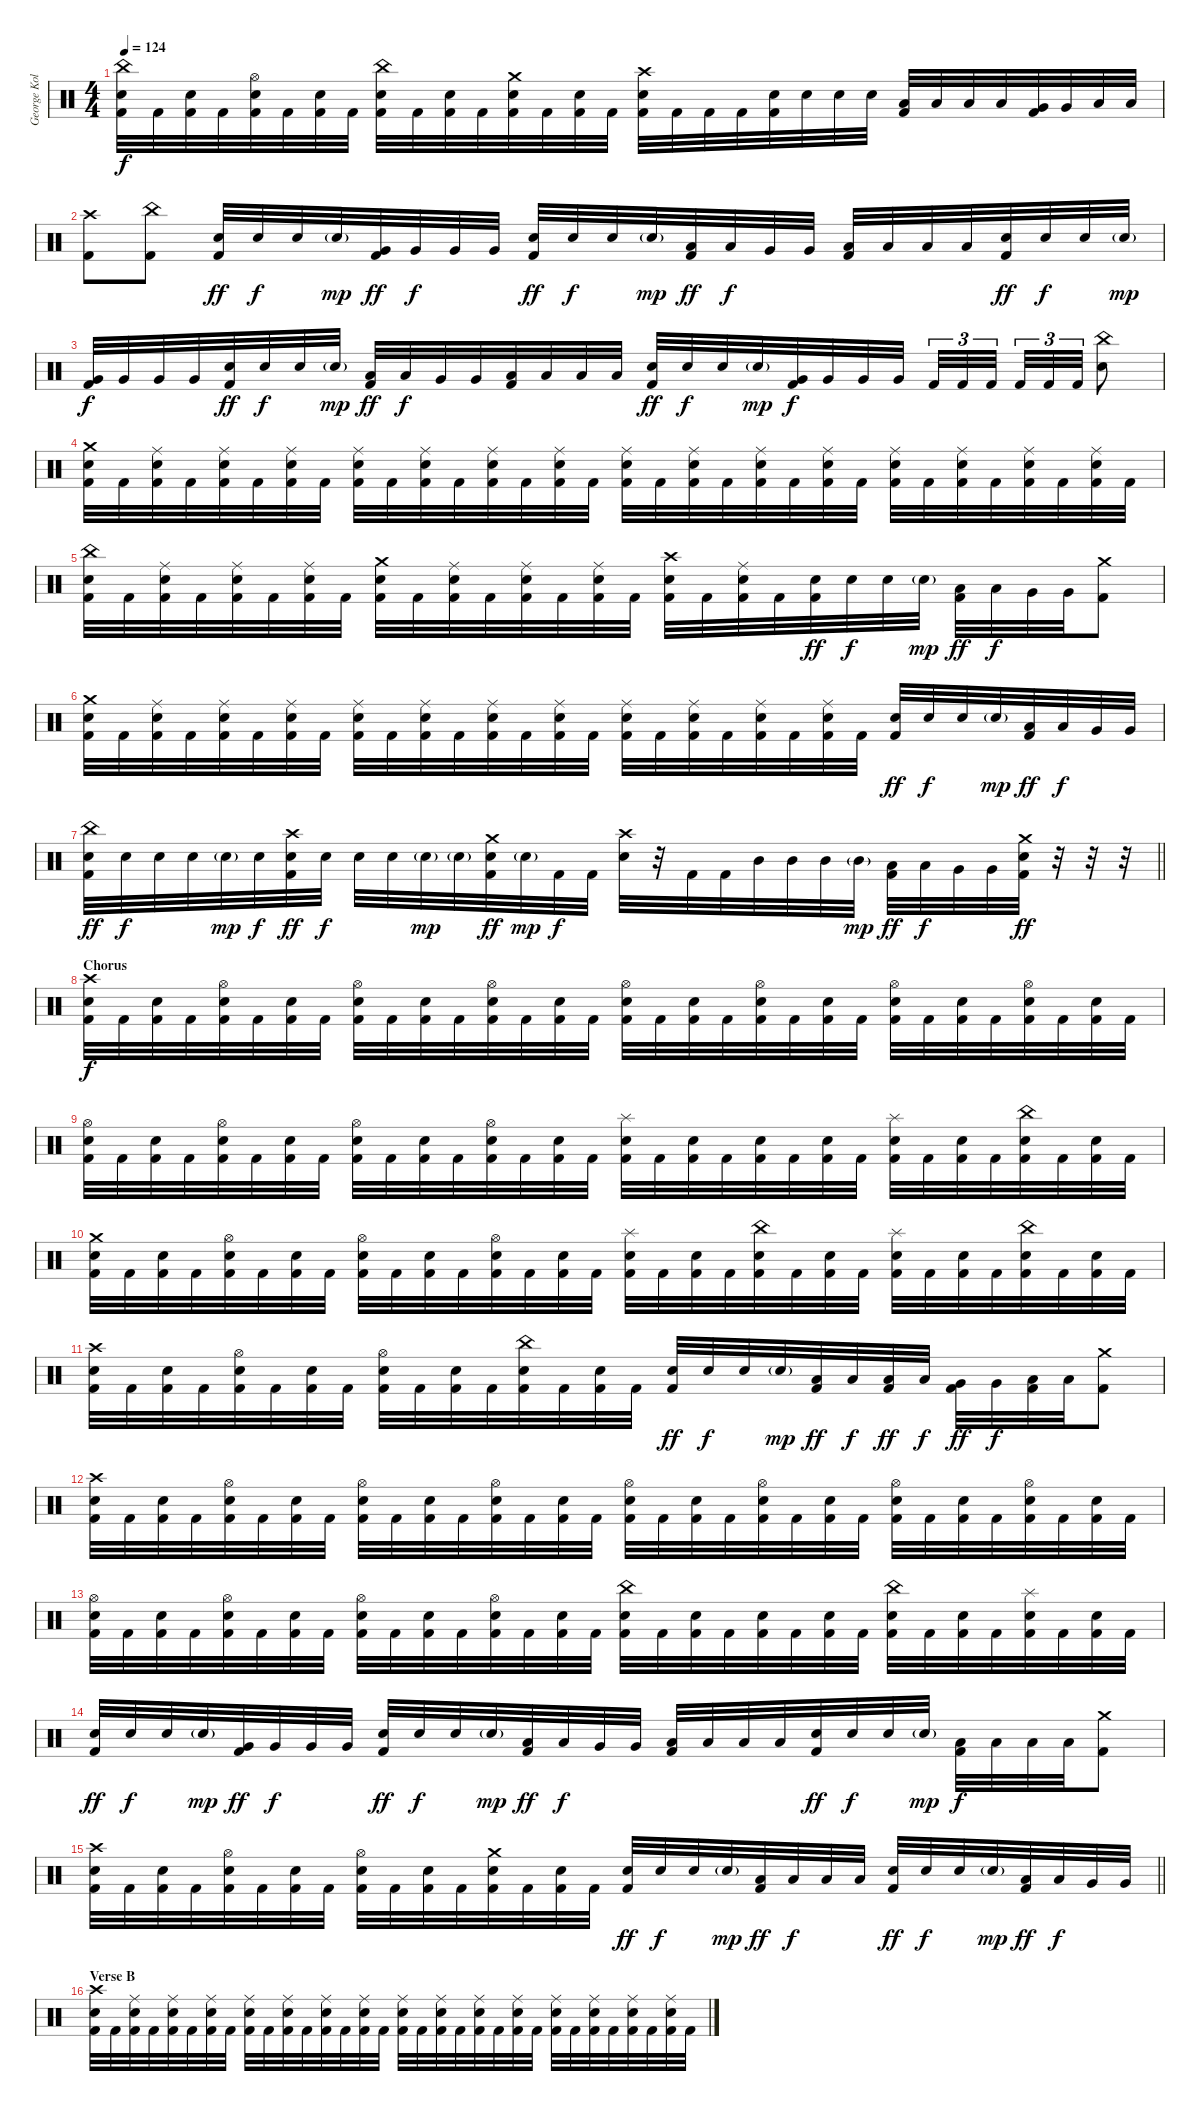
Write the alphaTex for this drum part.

\track ("George Kollias" "George Kol") {instrument percussion}
\staff {score}
\articulation defaults
\ts (4 4)
\tempo 124
\clef neutral
\ks c
("China (hit)" "Electric Snare (hit)" "Kick (hit) 2").32{dy f} "Kick (hit) 2".32 ("Electric Snare (hit)" "Kick (hit) 2").32 "Kick (hit) 2".32 ("Hi-Hat (open)" "Electric Snare (hit)" "Kick (hit) 2").32 "Kick (hit) 2".32 ("Electric Snare (hit)" "Kick (hit) 2").32 "Kick (hit) 2".32 ("China (hit)" "Electric Snare (hit)" "Kick (hit) 2").32 "Kick (hit) 2".32 ("Electric Snare (hit)" "Kick (hit) 2").32 "Kick (hit) 2".32 ("Crash medium (hit)" "Electric Snare (hit)" "Kick (hit) 2").32 "Kick (hit) 2".32 ("Electric Snare (hit)" "Kick (hit) 2").32 "Kick (hit) 2".32 ("Crash high (hit)" "Electric Snare (hit)" "Kick (hit) 2").32 "Kick (hit) 2".32 "Kick (hit) 2".32 "Kick (hit) 2".32 ("Electric Snare (hit)" "Kick (hit) 2").32 "Electric Snare (hit)".32 "Electric Snare (hit)".32 "Electric Snare (hit)".32 ("Low Tom (hit)" "Kick (hit) 2").32 "Low Tom (hit)".32 "Low Tom (hit)".32 "Low Tom (hit)".32 ("Very Low Tom (hit)" "Kick (hit) 2").32 "Very Low Tom (hit)".32 "Low Floor Tom (hit)".32 "Low Floor Tom (hit)".32 |
("Crash high (hit)" "Kick (hit) 2").8 ("China (hit)" "Kick (hit) 2").8 ("Electric Snare (hit)" "Kick (hit) 2").32{dy ff} "Electric Snare (hit)".32{dy f} "Electric Snare (hit)".32 "Electric Snare (hit)"{g}.32{dy mp} ("Very Low Tom (hit)" "Kick (hit) 2").32{dy ff} "Very Low Tom (hit)".32{dy f} "Very Low Tom (hit)".32 "Very Low Tom (hit)".32 ("Electric Snare (hit)" "Kick (hit) 2").32{dy ff} "Electric Snare (hit)".32{dy f} "Electric Snare (hit)".32 "Electric Snare (hit)"{g}.32{dy mp} ("Low Tom (hit)" "Kick (hit) 2").32{dy ff} "Low Tom (hit)".32{dy f} "Very Low Tom (hit)".32 "Very Low Tom (hit)".32 ("Low Floor Tom (hit)" "Kick (hit) 2").32 "Low Floor Tom (hit)".32 "Low Floor Tom (hit)".32 "Low Floor Tom (hit)".32 ("Electric Snare (hit)" "Kick (hit) 2").32{dy ff} "Electric Snare (hit)".32{dy f} "Electric Snare (hit)".32 "Electric Snare (hit)"{g}.32{dy mp} |
("Very Low Tom (hit)" "Kick (hit) 2").32{dy f} "Very Low Tom (hit)".32 "Very Low Tom (hit)".32 "Very Low Tom (hit)".32 ("Electric Snare (hit)" "Kick (hit) 2").32{dy ff} "Electric Snare (hit)".32{dy f} "Electric Snare (hit)".32 "Electric Snare (hit)"{g}.32{dy mp} ("Low Tom (hit)" "Kick (hit) 2").32{dy ff} "Low Tom (hit)".32{dy f} "Very Low Tom (hit)".32 "Very Low Tom (hit)".32 ("Low Floor Tom (hit)" "Kick (hit) 2").32 "Low Floor Tom (hit)".32 "Low Floor Tom (hit)".32 "Low Floor Tom (hit)".32 ("Electric Snare (hit)" "Kick (hit) 2").32{dy ff} "Electric Snare (hit)".32{dy f} "Electric Snare (hit)".32 "Electric Snare (hit)"{g}.32{dy mp} ("Very Low Tom (hit)" "Kick (hit) 2").32{dy f} "Very Low Tom (hit)".32 "Very Low Tom (hit)".32 "Very Low Tom (hit)".32 "Kick (hit) 2".32{tu (3 2)} "Kick (hit) 2".32{tu (3 2)} "Kick (hit) 2".32{tu (3 2) beam splitsecondary} "Kick (hit) 2".32{tu (3 2)} "Kick (hit) 2".32{tu (3 2)} "Kick (hit) 2".32{tu (3 2)} ("China (hit)" "Electric Snare (hit)").8 |
("Crash medium (hit)" "Electric Snare (hit)" "Kick (hit) 2").32 "Kick (hit) 2".32 ("Ride (middle)" "Electric Snare (hit)" "Kick (hit) 2").32 "Kick (hit) 2".32 ("Ride (middle)" "Electric Snare (hit)" "Kick (hit) 2").32 "Kick (hit) 2".32 ("Ride (middle)" "Electric Snare (hit)" "Kick (hit) 2").32 "Kick (hit) 2".32 ("Ride (middle)" "Electric Snare (hit)" "Kick (hit) 2").32 "Kick (hit) 2".32 ("Ride (middle)" "Electric Snare (hit)" "Kick (hit) 2").32 "Kick (hit) 2".32 ("Ride (middle)" "Electric Snare (hit)" "Kick (hit) 2").32 "Kick (hit) 2".32 ("Ride (middle)" "Electric Snare (hit)" "Kick (hit) 2").32 "Kick (hit) 2".32 ("Ride (middle)" "Electric Snare (hit)" "Kick (hit) 2").32 "Kick (hit) 2".32 ("Ride (middle)" "Electric Snare (hit)" "Kick (hit) 2").32 "Kick (hit) 2".32 ("Ride (middle)" "Electric Snare (hit)" "Kick (hit) 2").32 "Kick (hit) 2".32 ("Ride (middle)" "Electric Snare (hit)" "Kick (hit) 2").32 "Kick (hit) 2".32 ("Ride (middle)" "Electric Snare (hit)" "Kick (hit) 2").32 "Kick (hit) 2".32 ("Ride (middle)" "Electric Snare (hit)" "Kick (hit) 2").32 "Kick (hit) 2".32 ("Ride (middle)" "Electric Snare (hit)" "Kick (hit) 2").32 "Kick (hit) 2".32 ("Ride (middle)" "Electric Snare (hit)" "Kick (hit) 2").32 "Kick (hit) 2".32 |
("China (hit)" "Electric Snare (hit)" "Kick (hit) 2").32 "Kick (hit) 2".32 ("Ride (middle)" "Electric Snare (hit)" "Kick (hit) 2").32 "Kick (hit) 2".32 ("Ride (middle)" "Electric Snare (hit)" "Kick (hit) 2").32 "Kick (hit) 2".32 ("Ride (middle)" "Electric Snare (hit)" "Kick (hit) 2").32 "Kick (hit) 2".32 ("Crash medium (hit)" "Electric Snare (hit)" "Kick (hit) 2").32 "Kick (hit) 2".32 ("Ride (middle)" "Electric Snare (hit)" "Kick (hit) 2").32 "Kick (hit) 2".32 ("Ride (middle)" "Electric Snare (hit)" "Kick (hit) 2").32 "Kick (hit) 2".32 ("Ride (middle)" "Electric Snare (hit)" "Kick (hit) 2").32 "Kick (hit) 2".32 ("Crash high (hit)" "Electric Snare (hit)" "Kick (hit) 2").32 "Kick (hit) 2".32 ("Ride (middle)" "Electric Snare (hit)" "Kick (hit) 2").32 "Kick (hit) 2".32 ("Electric Snare (hit)" "Kick (hit) 2").32{dy ff} "Electric Snare (hit)".32{dy f} "Electric Snare (hit)".32 "Electric Snare (hit)"{g}.32{dy mp} ("Low Tom (hit)" "Kick (hit) 2").32{dy ff} "Low Tom (hit)".32{dy f} "Very Low Tom (hit)".32 "Very Low Tom (hit)".32 ("Crash medium (hit)" "Kick (hit) 2").8 |
("Crash medium (hit)" "Electric Snare (hit)" "Kick (hit) 2").32 "Kick (hit) 2".32 ("Ride (middle)" "Electric Snare (hit)" "Kick (hit) 2").32 "Kick (hit) 2".32 ("Ride (middle)" "Electric Snare (hit)" "Kick (hit) 2").32 "Kick (hit) 2".32 ("Ride (middle)" "Electric Snare (hit)" "Kick (hit) 2").32 "Kick (hit) 2".32 ("Ride (middle)" "Electric Snare (hit)" "Kick (hit) 2").32 "Kick (hit) 2".32 ("Ride (middle)" "Electric Snare (hit)" "Kick (hit) 2").32 "Kick (hit) 2".32 ("Ride (middle)" "Electric Snare (hit)" "Kick (hit) 2").32 "Kick (hit) 2".32 ("Ride (middle)" "Electric Snare (hit)" "Kick (hit) 2").32 "Kick (hit) 2".32 ("Ride (middle)" "Electric Snare (hit)" "Kick (hit) 2").32 "Kick (hit) 2".32 ("Ride (middle)" "Electric Snare (hit)" "Kick (hit) 2").32 "Kick (hit) 2".32 ("Ride (middle)" "Electric Snare (hit)" "Kick (hit) 2").32 "Kick (hit) 2".32 ("Ride (middle)" "Electric Snare (hit)" "Kick (hit) 2").32 "Kick (hit) 2".32 ("Electric Snare (hit)" "Kick (hit) 2").32{dy ff} "Electric Snare (hit)".32{dy f} "Electric Snare (hit)".32 "Electric Snare (hit)"{g}.32{dy mp} ("Low Tom (hit)" "Kick (hit) 2").32{dy ff} "Low Tom (hit)".32{dy f} "Very Low Tom (hit)".32 "Very Low Tom (hit)".32 |
\barLineRight lightlight
("China (hit)" "Electric Snare (hit)" "Kick (hit) 2").32{dy ff} "Electric Snare (hit)".32{dy f} "Electric Snare (hit)".32 "Electric Snare (hit)".32 "Electric Snare (hit)"{g}.32{dy mp} "Electric Snare (hit)".32{dy f} ("Crash high (hit)" "Electric Snare (hit)" "Kick (hit) 2").32{dy ff} "Electric Snare (hit)".32{dy f} "Electric Snare (hit)".32 "Electric Snare (hit)".32 "Electric Snare (hit)"{g}.32{dy mp} "Electric Snare (hit)"{g}.32 ("Crash medium (hit)" "Electric Snare (hit)" "Kick (hit) 2").32{dy ff} "Electric Snare (hit)"{g}.32{dy mp} "Kick (hit) 2".32{dy f} "Kick (hit) 2".32 ("Crash high (hit)" "Electric Snare (hit)").32 r.32 "Kick (hit) 2".32 "Kick (hit) 2".32 "Mid Tom (hit)".32 "Mid Tom (hit)".32 "Mid Tom (hit)".32 "Mid Tom (hit)"{g}.32{dy mp} ("Low Tom (hit)" "Kick (hit) 2").32{dy ff} "Low Tom (hit)".32{dy f} "Very Low Tom (hit)".32 "Very Low Tom (hit)".32 ("Crash medium (hit)" "Electric Snare (hit)" "Kick (hit) 2").32{dy ff} r.32 r.32 r.32 |
\section ("" "Chorus ")
("Crash high (hit)" "Electric Snare (hit)" "Kick (hit) 2").32{dy f} "Kick (hit) 2".32 ("Electric Snare (hit)" "Kick (hit) 2").32 "Kick (hit) 2".32 ("Hi-Hat (open)" "Electric Snare (hit)" "Kick (hit) 2").32 "Kick (hit) 2".32 ("Electric Snare (hit)" "Kick (hit) 2").32 "Kick (hit) 2".32 ("Hi-Hat (open)" "Electric Snare (hit)" "Kick (hit) 2").32 "Kick (hit) 2".32 ("Electric Snare (hit)" "Kick (hit) 2").32 "Kick (hit) 2".32 ("Hi-Hat (open)" "Electric Snare (hit)" "Kick (hit) 2").32 "Kick (hit) 2".32 ("Electric Snare (hit)" "Kick (hit) 2").32 "Kick (hit) 2".32 ("Hi-Hat (open)" "Electric Snare (hit)" "Kick (hit) 2").32 "Kick (hit) 2".32 ("Electric Snare (hit)" "Kick (hit) 2").32 "Kick (hit) 2".32 ("Hi-Hat (open)" "Electric Snare (hit)" "Kick (hit) 2").32 "Kick (hit) 2".32 ("Electric Snare (hit)" "Kick (hit) 2").32 "Kick (hit) 2".32 ("Hi-Hat (open)" "Electric Snare (hit)" "Kick (hit) 2").32 "Kick (hit) 2".32 ("Electric Snare (hit)" "Kick (hit) 2").32 "Kick (hit) 2".32 ("Hi-Hat (open)" "Electric Snare (hit)" "Kick (hit) 2").32 "Kick (hit) 2".32 ("Electric Snare (hit)" "Kick (hit) 2").32 "Kick (hit) 2".32 |
("Hi-Hat (open)" "Electric Snare (hit)" "Kick (hit) 2").32 "Kick (hit) 2".32 ("Electric Snare (hit)" "Kick (hit) 2").32 "Kick (hit) 2".32 ("Hi-Hat (open)" "Electric Snare (hit)" "Kick (hit) 2").32 "Kick (hit) 2".32 ("Electric Snare (hit)" "Kick (hit) 2").32 "Kick (hit) 2".32 ("Hi-Hat (open)" "Electric Snare (hit)" "Kick (hit) 2").32 "Kick (hit) 2".32 ("Electric Snare (hit)" "Kick (hit) 2").32 "Kick (hit) 2".32 ("Hi-Hat (open)" "Electric Snare (hit)" "Kick (hit) 2").32 "Kick (hit) 2".32 ("Electric Snare (hit)" "Kick (hit) 2").32 "Kick (hit) 2".32 ("Splash (hit)" "Electric Snare (hit)" "Kick (hit) 2").32 "Kick (hit) 2".32 ("Electric Snare (hit)" "Kick (hit) 2").32 "Kick (hit) 2".32 ("Electric Snare (hit)" "Kick (hit) 2").32 "Kick (hit) 2".32 ("Electric Snare (hit)" "Kick (hit) 2").32 "Kick (hit) 2".32 ("Splash (hit)" "Electric Snare (hit)" "Kick (hit) 2").32 "Kick (hit) 2".32 ("Electric Snare (hit)" "Kick (hit) 2").32 "Kick (hit) 2".32 ("China (hit)" "Electric Snare (hit)" "Kick (hit) 2").32 "Kick (hit) 2".32 ("Electric Snare (hit)" "Kick (hit) 2").32 "Kick (hit) 2".32 |
("Crash medium (hit)" "Electric Snare (hit)" "Kick (hit) 2").32 "Kick (hit) 2".32 ("Electric Snare (hit)" "Kick (hit) 2").32 "Kick (hit) 2".32 ("Hi-Hat (open)" "Electric Snare (hit)" "Kick (hit) 2").32 "Kick (hit) 2".32 ("Electric Snare (hit)" "Kick (hit) 2").32 "Kick (hit) 2".32 ("Hi-Hat (open)" "Electric Snare (hit)" "Kick (hit) 2").32 "Kick (hit) 2".32 ("Electric Snare (hit)" "Kick (hit) 2").32 "Kick (hit) 2".32 ("Hi-Hat (open)" "Electric Snare (hit)" "Kick (hit) 2").32 "Kick (hit) 2".32 ("Electric Snare (hit)" "Kick (hit) 2").32 "Kick (hit) 2".32 ("Splash (hit)" "Electric Snare (hit)" "Kick (hit) 2").32 "Kick (hit) 2".32 ("Electric Snare (hit)" "Kick (hit) 2").32 "Kick (hit) 2".32 ("China (hit)" "Electric Snare (hit)" "Kick (hit) 2").32 "Kick (hit) 2".32 ("Electric Snare (hit)" "Kick (hit) 2").32 "Kick (hit) 2".32 ("Splash (hit)" "Electric Snare (hit)" "Kick (hit) 2").32 "Kick (hit) 2".32 ("Electric Snare (hit)" "Kick (hit) 2").32 "Kick (hit) 2".32 ("China (hit)" "Electric Snare (hit)" "Kick (hit) 2").32 "Kick (hit) 2".32 ("Electric Snare (hit)" "Kick (hit) 2").32 "Kick (hit) 2".32 |
("Crash high (hit)" "Electric Snare (hit)" "Kick (hit) 2").32 "Kick (hit) 2".32 ("Electric Snare (hit)" "Kick (hit) 2").32 "Kick (hit) 2".32 ("Hi-Hat (open)" "Electric Snare (hit)" "Kick (hit) 2").32 "Kick (hit) 2".32 ("Electric Snare (hit)" "Kick (hit) 2").32 "Kick (hit) 2".32 ("Hi-Hat (open)" "Electric Snare (hit)" "Kick (hit) 2").32 "Kick (hit) 2".32 ("Electric Snare (hit)" "Kick (hit) 2").32 "Kick (hit) 2".32 ("China (hit)" "Electric Snare (hit)" "Kick (hit) 2").32 "Kick (hit) 2".32 ("Electric Snare (hit)" "Kick (hit) 2").32 "Kick (hit) 2".32 ("Electric Snare (hit)" "Kick (hit) 2").32{dy ff} "Electric Snare (hit)".32{dy f} "Electric Snare (hit)".32 "Electric Snare (hit)"{g}.32{dy mp} ("Low Tom (hit)" "Kick (hit) 2").32{dy ff} "Low Tom (hit)".32{dy f} ("Low Tom (hit)" "Kick (hit) 2").32{dy ff} "Low Tom (hit)".32{dy f} ("Very Low Tom (hit)" "Kick (hit) 2").32{dy ff} "Very Low Tom (hit)".32{dy f} ("Low Floor Tom (hit)" "Kick (hit) 2").32 "Low Floor Tom (hit)".32 ("Crash medium (hit)" "Kick (hit) 2").8 |
("Crash high (hit)" "Electric Snare (hit)" "Kick (hit) 2").32 "Kick (hit) 2".32 ("Electric Snare (hit)" "Kick (hit) 2").32 "Kick (hit) 2".32 ("Hi-Hat (open)" "Electric Snare (hit)" "Kick (hit) 2").32 "Kick (hit) 2".32 ("Electric Snare (hit)" "Kick (hit) 2").32 "Kick (hit) 2".32 ("Hi-Hat (open)" "Electric Snare (hit)" "Kick (hit) 2").32 "Kick (hit) 2".32 ("Electric Snare (hit)" "Kick (hit) 2").32 "Kick (hit) 2".32 ("Hi-Hat (open)" "Electric Snare (hit)" "Kick (hit) 2").32 "Kick (hit) 2".32 ("Electric Snare (hit)" "Kick (hit) 2").32 "Kick (hit) 2".32 ("Hi-Hat (open)" "Electric Snare (hit)" "Kick (hit) 2").32 "Kick (hit) 2".32 ("Electric Snare (hit)" "Kick (hit) 2").32 "Kick (hit) 2".32 ("Hi-Hat (open)" "Electric Snare (hit)" "Kick (hit) 2").32 "Kick (hit) 2".32 ("Electric Snare (hit)" "Kick (hit) 2").32 "Kick (hit) 2".32 ("Hi-Hat (open)" "Electric Snare (hit)" "Kick (hit) 2").32 "Kick (hit) 2".32 ("Electric Snare (hit)" "Kick (hit) 2").32 "Kick (hit) 2".32 ("Hi-Hat (open)" "Electric Snare (hit)" "Kick (hit) 2").32 "Kick (hit) 2".32 ("Electric Snare (hit)" "Kick (hit) 2").32 "Kick (hit) 2".32 |
("Hi-Hat (open)" "Electric Snare (hit)" "Kick (hit) 2").32 "Kick (hit) 2".32 ("Electric Snare (hit)" "Kick (hit) 2").32 "Kick (hit) 2".32 ("Hi-Hat (open)" "Electric Snare (hit)" "Kick (hit) 2").32 "Kick (hit) 2".32 ("Electric Snare (hit)" "Kick (hit) 2").32 "Kick (hit) 2".32 ("Hi-Hat (open)" "Electric Snare (hit)" "Kick (hit) 2").32 "Kick (hit) 2".32 ("Electric Snare (hit)" "Kick (hit) 2").32 "Kick (hit) 2".32 ("Hi-Hat (open)" "Electric Snare (hit)" "Kick (hit) 2").32 "Kick (hit) 2".32 ("Electric Snare (hit)" "Kick (hit) 2").32 "Kick (hit) 2".32 ("China (hit)" "Electric Snare (hit)" "Kick (hit) 2").32 "Kick (hit) 2".32 ("Electric Snare (hit)" "Kick (hit) 2").32 "Kick (hit) 2".32 ("Electric Snare (hit)" "Kick (hit) 2").32 "Kick (hit) 2".32 ("Electric Snare (hit)" "Kick (hit) 2").32 "Kick (hit) 2".32 ("China (hit)" "Electric Snare (hit)" "Kick (hit) 2").32 "Kick (hit) 2".32 ("Electric Snare (hit)" "Kick (hit) 2").32 "Kick (hit) 2".32 ("Splash (hit)" "Electric Snare (hit)" "Kick (hit) 2").32 "Kick (hit) 2".32 ("Electric Snare (hit)" "Kick (hit) 2").32 "Kick (hit) 2".32 |
("Electric Snare (hit)" "Kick (hit) 2").32{dy ff} "Electric Snare (hit)".32{dy f} "Electric Snare (hit)".32 "Electric Snare (hit)"{g}.32{dy mp} ("Very Low Tom (hit)" "Kick (hit) 2").32{dy ff} "Very Low Tom (hit)".32{dy f} "Very Low Tom (hit)".32 "Very Low Tom (hit)".32 ("Electric Snare (hit)" "Kick (hit) 2").32{dy ff} "Electric Snare (hit)".32{dy f} "Electric Snare (hit)".32 "Electric Snare (hit)"{g}.32{dy mp} ("Low Tom (hit)" "Kick (hit) 2").32{dy ff} "Low Tom (hit)".32{dy f} "Very Low Tom (hit)".32 "Very Low Tom (hit)".32 ("Low Floor Tom (hit)" "Kick (hit) 2").32 "Low Floor Tom (hit)".32 "Low Floor Tom (hit)".32 "Low Floor Tom (hit)".32 ("Electric Snare (hit)" "Kick (hit) 2").32{dy ff} "Electric Snare (hit)".32{dy f} "Electric Snare (hit)".32 "Electric Snare (hit)"{g}.32{dy mp} ("Low Floor Tom (hit)" "Kick (hit) 2").32{dy f} "Low Floor Tom (hit)".32 "Low Floor Tom (hit)".32 "Low Floor Tom (hit)".32 ("Crash medium (hit)" "Kick (hit) 2").8 |
\barLineRight lightlight
("Crash high (hit)" "Electric Snare (hit)" "Kick (hit) 2").32 "Kick (hit) 2".32 ("Electric Snare (hit)" "Kick (hit) 2").32 "Kick (hit) 2".32 ("Hi-Hat (open)" "Electric Snare (hit)" "Kick (hit) 2").32 "Kick (hit) 2".32 ("Electric Snare (hit)" "Kick (hit) 2").32 "Kick (hit) 2".32 ("Hi-Hat (open)" "Electric Snare (hit)" "Kick (hit) 2").32 "Kick (hit) 2".32 ("Electric Snare (hit)" "Kick (hit) 2").32 "Kick (hit) 2".32 ("Crash medium (hit)" "Electric Snare (hit)" "Kick (hit) 2").32 "Kick (hit) 2".32 ("Electric Snare (hit)" "Kick (hit) 2").32 "Kick (hit) 2".32 ("Electric Snare (hit)" "Kick (hit) 2").32{dy ff} "Electric Snare (hit)".32{dy f} "Electric Snare (hit)".32 "Electric Snare (hit)"{g}.32{dy mp} ("Low Floor Tom (hit)" "Kick (hit) 2").32{dy ff} "Low Floor Tom (hit)".32{dy f} "Low Floor Tom (hit)".32 "Low Floor Tom (hit)".32 ("Electric Snare (hit)" "Kick (hit) 2").32{dy ff} "Electric Snare (hit)".32{dy f} "Electric Snare (hit)".32 "Electric Snare (hit)"{g}.32{dy mp} ("Low Tom (hit)" "Kick (hit) 2").32{dy ff} "Low Tom (hit)".32{dy f} "Very Low Tom (hit)".32 "Very Low Tom (hit)".32 |
\section ("" "Verse B")
("Crash high (hit)" "Electric Snare (hit)" "Kick (hit) 2").32 "Kick (hit) 2".32 ("Ride (middle)" "Electric Snare (hit)" "Kick (hit) 2").32 "Kick (hit) 2".32 ("Ride (middle)" "Electric Snare (hit)" "Kick (hit) 2").32 "Kick (hit) 2".32 ("Ride (middle)" "Electric Snare (hit)" "Kick (hit) 2").32 "Kick (hit) 2".32 ("Ride (middle)" "Electric Snare (hit)" "Kick (hit) 2").32 "Kick (hit) 2".32 ("Ride (middle)" "Electric Snare (hit)" "Kick (hit) 2").32 "Kick (hit) 2".32 ("Ride (middle)" "Electric Snare (hit)" "Kick (hit) 2").32 "Kick (hit) 2".32 ("Ride (middle)" "Electric Snare (hit)" "Kick (hit) 2").32 "Kick (hit) 2".32 ("Ride (middle)" "Electric Snare (hit)" "Kick (hit) 2").32 "Kick (hit) 2".32 ("Ride (middle)" "Electric Snare (hit)" "Kick (hit) 2").32 "Kick (hit) 2".32 ("Ride (middle)" "Electric Snare (hit)" "Kick (hit) 2").32 "Kick (hit) 2".32 ("Ride (middle)" "Electric Snare (hit)" "Kick (hit) 2").32 "Kick (hit) 2".32 ("Ride (middle)" "Electric Snare (hit)" "Kick (hit) 2").32 "Kick (hit) 2".32 ("Ride (middle)" "Electric Snare (hit)" "Kick (hit) 2").32 "Kick (hit) 2".32 ("Ride (middle)" "Electric Snare (hit)" "Kick (hit) 2").32 "Kick (hit) 2".32 ("Ride (middle)" "Electric Snare (hit)" "Kick (hit) 2").32 "Kick (hit) 2".32
